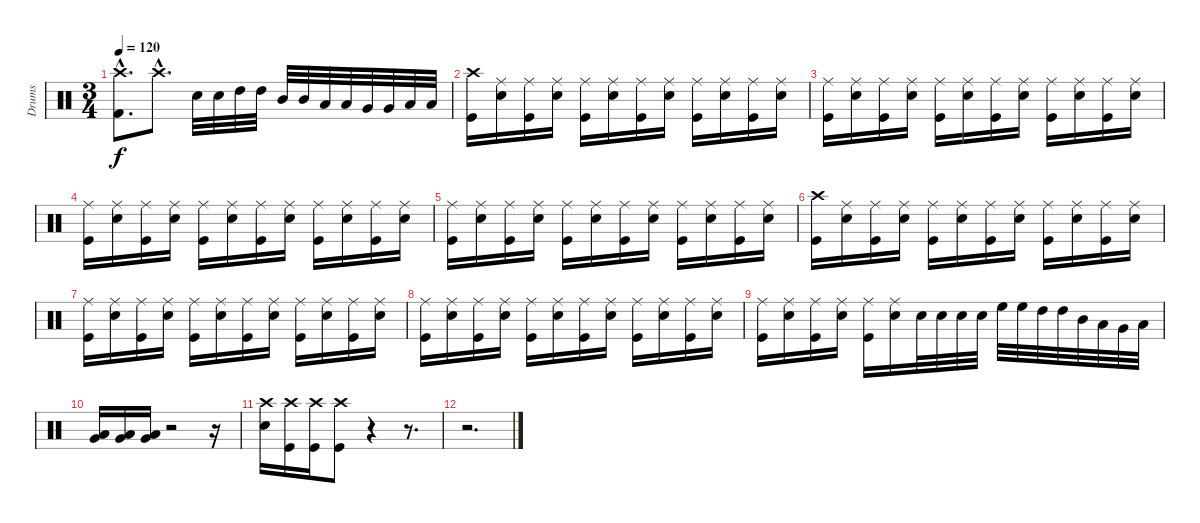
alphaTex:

\track ("Drums" "Drums") {instrument percussion}
\staff {score}
\articulation defaults
\ts (3 4)
\tempo 120
\clef neutral
\ks c
("Kick (hit) 2"{hac} "Crash high (hit)"{hac}).8{d dy f} "Crash high (hit)"{hac}.8{d} "Electric Snare (hit)".32 "Electric Snare (hit)".32 "High Tom (hit)".32 "High Tom (hit)".32 "Mid Tom (hit)".32 "Mid Tom (hit)".32 "Low Tom (hit)".32 "Low Tom (hit)".32 "Very Low Tom (hit)".32 "Very Low Tom (hit)".32 "Low Floor Tom (hit)".32 "Low Floor Tom (hit)".32 |
("Kick (hit)" "Crash high (hit)").16 ("Ride (middle)" "Electric Snare (hit)").16 ("Kick (hit)" "Ride (middle)").16 ("Ride (middle)" "Electric Snare (hit)").16 ("Kick (hit)" "Ride (middle)").16 ("Ride (middle)" "Electric Snare (hit)").16 ("Kick (hit)" "Ride (middle)").16 ("Ride (middle)" "Electric Snare (hit)").16 ("Kick (hit)" "Ride (middle)").16 ("Ride (middle)" "Electric Snare (hit)").16 ("Kick (hit)" "Ride (middle)").16 ("Ride (middle)" "Electric Snare (hit)").16 |
("Kick (hit)" "Ride (middle)").16 ("Ride (middle)" "Electric Snare (hit)").16 ("Kick (hit)" "Ride (middle)").16 ("Ride (middle)" "Electric Snare (hit)").16 ("Kick (hit)" "Ride (middle)").16 ("Ride (middle)" "Electric Snare (hit)").16 ("Kick (hit)" "Ride (middle)").16 ("Ride (middle)" "Electric Snare (hit)").16 ("Kick (hit)" "Ride (middle)").16 ("Ride (middle)" "Electric Snare (hit)").16 ("Kick (hit)" "Ride (middle)").16 ("Ride (middle)" "Electric Snare (hit)").16 |
("Kick (hit)" "Ride (middle)").16 ("Ride (middle)" "Electric Snare (hit)").16 ("Kick (hit)" "Ride (middle)").16 ("Ride (middle)" "Electric Snare (hit)").16 ("Kick (hit)" "Ride (middle)").16 ("Ride (middle)" "Electric Snare (hit)").16 ("Kick (hit)" "Ride (middle)").16 ("Ride (middle)" "Electric Snare (hit)").16 ("Kick (hit)" "Ride (middle)").16 ("Ride (middle)" "Electric Snare (hit)").16 ("Kick (hit)" "Ride (middle)").16 ("Ride (middle)" "Electric Snare (hit)").16 |
("Kick (hit)" "Ride (middle)").16 ("Ride (middle)" "Electric Snare (hit)").16 ("Kick (hit)" "Ride (middle)").16 ("Ride (middle)" "Electric Snare (hit)").16 ("Kick (hit)" "Ride (middle)").16 ("Ride (middle)" "Electric Snare (hit)").16 ("Kick (hit)" "Ride (middle)").16 ("Ride (middle)" "Electric Snare (hit)").16 ("Kick (hit)" "Ride (middle)").16 ("Ride (middle)" "Electric Snare (hit)").16 ("Kick (hit)" "Ride (middle)").16 ("Ride (middle)" "Electric Snare (hit)").16 |
("Kick (hit)" "Crash high (hit)").16 ("Ride (middle)" "Electric Snare (hit)").16 ("Kick (hit)" "Ride (middle)").16 ("Ride (middle)" "Electric Snare (hit)").16 ("Kick (hit)" "Ride (middle)").16 ("Ride (middle)" "Electric Snare (hit)").16 ("Kick (hit)" "Ride (middle)").16 ("Ride (middle)" "Electric Snare (hit)").16 ("Kick (hit)" "Ride (middle)").16 ("Ride (middle)" "Electric Snare (hit)").16 ("Kick (hit)" "Ride (middle)").16 ("Ride (middle)" "Electric Snare (hit)").16 |
("Kick (hit)" "Ride (middle)").16 ("Ride (middle)" "Electric Snare (hit)").16 ("Kick (hit)" "Ride (middle)").16 ("Ride (middle)" "Electric Snare (hit)").16 ("Kick (hit)" "Ride (middle)").16 ("Ride (middle)" "Electric Snare (hit)").16 ("Kick (hit)" "Ride (middle)").16 ("Ride (middle)" "Electric Snare (hit)").16 ("Kick (hit)" "Ride (middle)").16 ("Ride (middle)" "Electric Snare (hit)").16 ("Kick (hit)" "Ride (middle)").16 ("Ride (middle)" "Electric Snare (hit)").16 |
("Kick (hit)" "Ride (middle)").16 ("Ride (middle)" "Electric Snare (hit)").16 ("Kick (hit)" "Ride (middle)").16 ("Ride (middle)" "Electric Snare (hit)").16 ("Kick (hit)" "Ride (middle)").16 ("Ride (middle)" "Electric Snare (hit)").16 ("Kick (hit)" "Ride (middle)").16 ("Ride (middle)" "Electric Snare (hit)").16 ("Kick (hit)" "Ride (middle)").16 ("Ride (middle)" "Electric Snare (hit)").16 ("Kick (hit)" "Ride (middle)").16 ("Ride (middle)" "Electric Snare (hit)").16 |
("Kick (hit)" "Ride (middle)").16 ("Ride (middle)" "Electric Snare (hit)").16 ("Kick (hit)" "Ride (middle)").16 ("Ride (middle)" "Electric Snare (hit)").16 ("Kick (hit)" "Ride (middle)").16 ("Ride (middle)" "Electric Snare (hit)").16 "Electric Snare (hit)".32 "Electric Snare (hit)".32 "Electric Snare (hit)".32 "Electric Snare (hit)".32 "High Floor Tom (hit)".32 "High Floor Tom (hit)".32 "High Tom (hit)".32 "High Tom (hit)".32 "Mid Tom (hit)".32 "Low Tom (hit)".32 "Very Low Tom (hit)".32 "Low Floor Tom (hit)".32 |
("Very Low Tom (hit)" "Low Floor Tom (hit)").16 ("Very Low Tom (hit)" "Low Floor Tom (hit)").16 ("Very Low Tom (hit)" "Low Floor Tom (hit)").16 r.2 r.16 |
("Electric Snare (hit)" "Crash high (hit)").16 ("Kick (hit)" "Crash high (hit)").16 ("Kick (hit)" "Crash high (hit)").16 ("Kick (hit)" "Crash high (hit)").8 r.4 r.8{d} |
r.2{d}
